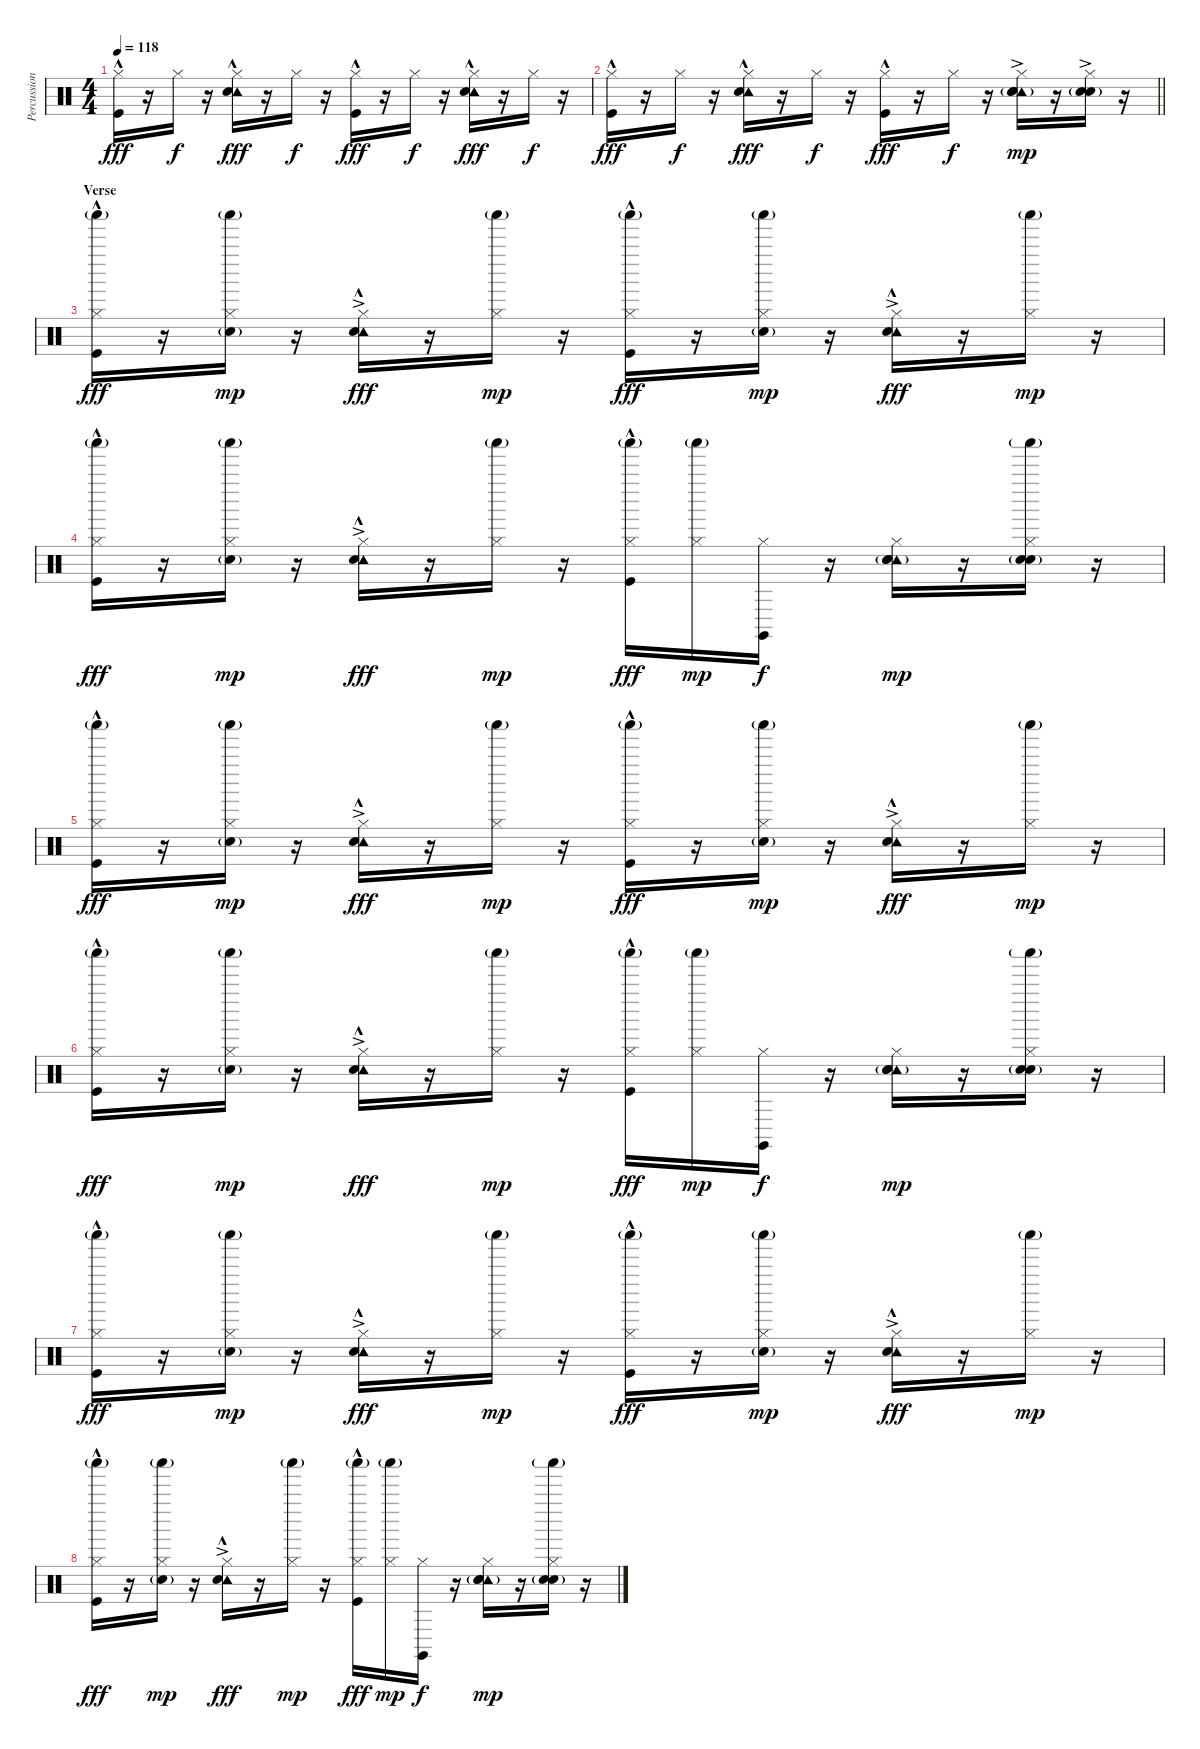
\track ("Percussion" "Percussion") {instrument percussion}
\staff {score}
\articulation defaults
\ts (4 4)
\tempo 118
\clef neutral
\ks c
("Hi-Hat (closed)" "Kick (hit)"{hac}).16{dy fff} r.16 "Hi-Hat (closed)".16{dy f} r.16 ("Tambourine (hit)" "Hi-Hat (closed)" "Snare (hit) 2"{hac}).16{dy fff} r.16 "Hi-Hat (closed)".16{dy f} r.16 ("Hi-Hat (closed)" "Kick (hit)"{hac}).16{dy fff} r.16 "Hi-Hat (closed)".16{dy f} r.16 ("Tambourine (hit)" "Hi-Hat (closed)" "Snare (hit) 2"{hac}).16{dy fff} r.16 "Hi-Hat (closed)".16{dy f} r.16 |
\barLineRight lightlight
("Hi-Hat (closed)" "Kick (hit)"{hac}).16{dy fff} r.16 "Hi-Hat (closed)".16{dy f} r.16 ("Tambourine (hit)" "Hi-Hat (closed)" "Snare (hit) 2"{hac}).16{dy fff} r.16 "Hi-Hat (closed)".16{dy f} r.16 ("Hi-Hat (closed)" "Kick (hit)"{hac}).16{dy fff} r.16 "Hi-Hat (closed)".16{dy f} r.16 ("Tambourine (hit)" "Hi-Hat (closed)" "Hand Clap (hit)"{ac} "Snare (hit) 2"{g}).16{dy mp} r.16 ("Hi-Hat (closed)" "Hand Clap (hit)"{ac} "Snare (hit) 2"{g}).16 r.16 |
\section ("" "Verse")
("Shaker (hit)"{g} "Hi-Hat (closed)" "Kick (hit)"{hac}).16{dy fff} r.16 ("Shaker (hit)"{g} "Hi-Hat (closed)" "Hand Clap (hit)"{g}).16{dy mp} r.16 ("Tambourine (hit)"{ac} "Hi-Hat (closed)" "Snare (hit) 2"{hac}).16{dy fff} r.16 ("Shaker (hit)"{g} "Hi-Hat (closed)").16{dy mp} r.16 ("Shaker (hit)"{g} "Hi-Hat (closed)" "Kick (hit)"{hac}).16{dy fff} r.16 ("Shaker (hit)"{g} "Hi-Hat (closed)" "Hand Clap (hit)"{g}).16{dy mp} r.16 ("Tambourine (hit)"{ac} "Hi-Hat (closed)" "Snare (hit) 2"{hac}).16{dy fff} r.16 ("Shaker (hit)"{g} "Hi-Hat (closed)").16{dy mp} r.16 |
("Shaker (hit)"{g} "Hi-Hat (closed)" "Kick (hit)"{hac}).16{dy fff} r.16 ("Shaker (hit)"{g} "Hi-Hat (closed)" "Hand Clap (hit)"{g}).16{dy mp} r.16 ("Tambourine (hit)"{ac} "Hi-Hat (closed)" "Snare (hit) 2"{hac}).16{dy fff} r.16 ("Shaker (hit)"{g} "Hi-Hat (closed)").16{dy mp} r.16 ("Shaker (hit)"{g} "Hi-Hat (closed)" "Kick (hit)"{hac}).16{dy fff} ("Shaker (hit)"{g} "Hi-Hat (closed)").16{dy mp} ("Claves (hit)" "Hi-Hat (closed)").16{dy f} r.16 ("Tambourine (hit)" "Hi-Hat (closed)" "Hand Clap (hit)" "Snare (hit) 2"{g}).16{dy mp} r.16 ("Shaker (hit)"{g} "Hi-Hat (closed)" "Hand Clap (hit)" "Snare (hit) 2"{g}).16 r.16 |
("Shaker (hit)"{g} "Hi-Hat (closed)" "Kick (hit)"{hac}).16{dy fff} r.16 ("Shaker (hit)"{g} "Hi-Hat (closed)" "Hand Clap (hit)"{g}).16{dy mp} r.16 ("Tambourine (hit)"{ac} "Hi-Hat (closed)" "Snare (hit) 2"{hac}).16{dy fff} r.16 ("Shaker (hit)"{g} "Hi-Hat (closed)").16{dy mp} r.16 ("Shaker (hit)"{g} "Hi-Hat (closed)" "Kick (hit)"{hac}).16{dy fff} r.16 ("Shaker (hit)"{g} "Hi-Hat (closed)" "Hand Clap (hit)"{g}).16{dy mp} r.16 ("Tambourine (hit)"{ac} "Hi-Hat (closed)" "Snare (hit) 2"{hac}).16{dy fff} r.16 ("Shaker (hit)"{g} "Hi-Hat (closed)").16{dy mp} r.16 |
("Shaker (hit)"{g} "Hi-Hat (closed)" "Kick (hit)"{hac}).16{dy fff} r.16 ("Shaker (hit)"{g} "Hi-Hat (closed)" "Hand Clap (hit)"{g}).16{dy mp} r.16 ("Tambourine (hit)"{ac} "Hi-Hat (closed)" "Snare (hit) 2"{hac}).16{dy fff} r.16 ("Shaker (hit)"{g} "Hi-Hat (closed)").16{dy mp} r.16 ("Shaker (hit)"{g} "Hi-Hat (closed)" "Kick (hit)"{hac}).16{dy fff} ("Shaker (hit)"{g} "Hi-Hat (closed)").16{dy mp} ("Claves (hit)" "Hi-Hat (closed)").16{dy f} r.16 ("Tambourine (hit)" "Hi-Hat (closed)" "Hand Clap (hit)" "Snare (hit) 2"{g}).16{dy mp} r.16 ("Shaker (hit)"{g} "Hi-Hat (closed)" "Hand Clap (hit)" "Snare (hit) 2"{g}).16 r.16 |
("Shaker (hit)"{g} "Hi-Hat (closed)" "Kick (hit)"{hac}).16{dy fff} r.16 ("Shaker (hit)"{g} "Hi-Hat (closed)" "Hand Clap (hit)"{g}).16{dy mp} r.16 ("Tambourine (hit)"{ac} "Hi-Hat (closed)" "Snare (hit) 2"{hac}).16{dy fff} r.16 ("Shaker (hit)"{g} "Hi-Hat (closed)").16{dy mp} r.16 ("Shaker (hit)"{g} "Hi-Hat (closed)" "Kick (hit)"{hac}).16{dy fff} r.16 ("Shaker (hit)"{g} "Hi-Hat (closed)" "Hand Clap (hit)"{g}).16{dy mp} r.16 ("Tambourine (hit)"{ac} "Hi-Hat (closed)" "Snare (hit) 2"{hac}).16{dy fff} r.16 ("Shaker (hit)"{g} "Hi-Hat (closed)").16{dy mp} r.16 |
("Shaker (hit)"{g} "Hi-Hat (closed)" "Kick (hit)"{hac}).16{dy fff} r.16 ("Shaker (hit)"{g} "Hi-Hat (closed)" "Hand Clap (hit)"{g}).16{dy mp} r.16 ("Tambourine (hit)"{ac} "Hi-Hat (closed)" "Snare (hit) 2"{hac}).16{dy fff} r.16 ("Shaker (hit)"{g} "Hi-Hat (closed)").16{dy mp} r.16 ("Shaker (hit)"{g} "Hi-Hat (closed)" "Kick (hit)"{hac}).16{dy fff} ("Shaker (hit)"{g} "Hi-Hat (closed)").16{dy mp} ("Claves (hit)" "Hi-Hat (closed)").16{dy f} r.16 ("Tambourine (hit)" "Hi-Hat (closed)" "Hand Clap (hit)" "Snare (hit) 2"{g}).16{dy mp} r.16 ("Shaker (hit)"{g} "Hi-Hat (closed)" "Hand Clap (hit)" "Snare (hit) 2"{g}).16 r.16
